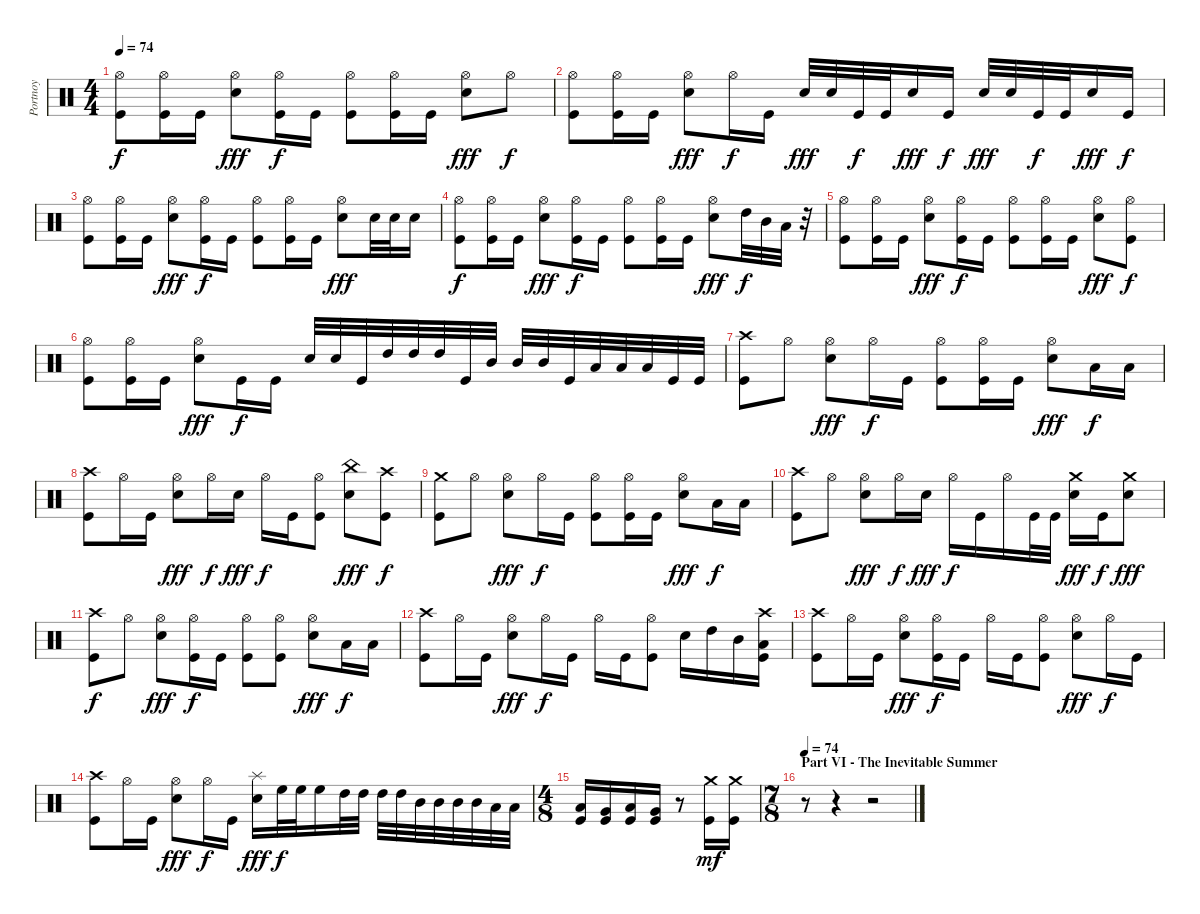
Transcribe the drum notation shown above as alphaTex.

\track ("Portnoy" "Portnoy") {instrument percussion}
\staff {score}
\articulation defaults
\ts (4 4)
\tempo 74
\clef neutral
\ks c
("Hi-Hat (open)" "Kick (hit)").8{dy f} ("Hi-Hat (open)" "Kick (hit)").16 "Kick (hit)".16 ("Hi-Hat (open)" "Electric Snare (hit)").8{dy fff} ("Hi-Hat (open)" "Kick (hit)").16{dy f} "Kick (hit)".16 ("Hi-Hat (open)" "Kick (hit)").8 ("Hi-Hat (open)" "Kick (hit)").16 "Kick (hit)".16 ("Hi-Hat (open)" "Electric Snare (hit)").8{dy fff} "Hi-Hat (open)".8{dy f} |
("Hi-Hat (open)" "Kick (hit)").8 ("Hi-Hat (open)" "Kick (hit)").16 "Kick (hit)".16 ("Hi-Hat (open)" "Electric Snare (hit)").8{dy fff} "Hi-Hat (open)".16{dy f} "Kick (hit)".16 "Electric Snare (hit)".32{dy fff} "Electric Snare (hit)".32 "Kick (hit)".32{dy f} "Kick (hit)".32 "Electric Snare (hit)".16{dy fff} "Kick (hit)".16{dy f} "Electric Snare (hit)".32{dy fff} "Electric Snare (hit)".32 "Kick (hit)".32{dy f} "Kick (hit)".32 "Electric Snare (hit)".16{dy fff} "Kick (hit)".16{dy f} |
("Hi-Hat (open)" "Kick (hit)").8 ("Hi-Hat (open)" "Kick (hit)").16 "Kick (hit)".16 ("Hi-Hat (open)" "Electric Snare (hit)").8{dy fff} ("Hi-Hat (open)" "Kick (hit)").16{dy f} "Kick (hit)".16 ("Hi-Hat (open)" "Kick (hit)").8 ("Hi-Hat (open)" "Kick (hit)").16 "Kick (hit)".16 ("Hi-Hat (open)" "Electric Snare (hit)").8{dy fff} "Electric Snare (hit)".32 "Electric Snare (hit)".32 "Electric Snare (hit)".16 |
("Hi-Hat (open)" "Kick (hit)").8{dy f} ("Hi-Hat (open)" "Kick (hit)").16 "Kick (hit)".16 ("Hi-Hat (open)" "Electric Snare (hit)").8{dy fff} ("Hi-Hat (open)" "Kick (hit)").16{dy f} "Kick (hit)".16 ("Hi-Hat (open)" "Kick (hit)").8 ("Hi-Hat (open)" "Kick (hit)").16 "Kick (hit)".16 ("Hi-Hat (open)" "Electric Snare (hit)").8{dy fff} "High Tom (hit)".32{dy f} "Mid Tom (hit)".32 "Low Tom (hit)".32 r.32 |
("Hi-Hat (open)" "Kick (hit)").8 ("Hi-Hat (open)" "Kick (hit)").16 "Kick (hit)".16 ("Hi-Hat (open)" "Electric Snare (hit)").8{dy fff} ("Hi-Hat (open)" "Kick (hit)").16{dy f} "Kick (hit)".16 ("Hi-Hat (open)" "Kick (hit)").8 ("Hi-Hat (open)" "Kick (hit)").16 "Kick (hit)".16 ("Hi-Hat (open)" "Electric Snare (hit)").8{dy fff} ("Hi-Hat (open)" "Kick (hit)").8{dy f} |
("Hi-Hat (open)" "Kick (hit)").8 ("Hi-Hat (open)" "Kick (hit)").16 "Kick (hit)".16 ("Hi-Hat (open)" "Electric Snare (hit)").8{dy fff} "Kick (hit)".16{dy f} "Kick (hit)".16 "Electric Snare (hit)".32 "Electric Snare (hit)".32 "Kick (hit)".32 "High Tom (hit)".32 "High Tom (hit)".32 "High Tom (hit)".32 "Kick (hit)".32 "Mid Tom (hit)".32 "Mid Tom (hit)".32 "Mid Tom (hit)".32 "Kick (hit)".32 "Low Tom (hit)".32 "Low Tom (hit)".32 "Low Tom (hit)".32 "Kick (hit)".32 "Kick (hit)".32 |
("Crash high (hit)" "Kick (hit)").8 "Hi-Hat (open)".8 ("Hi-Hat (open)" "Electric Snare (hit)").8{dy fff} "Hi-Hat (open)".16{dy f} "Kick (hit)".16 ("Hi-Hat (open)" "Kick (hit)").8 ("Hi-Hat (open)" "Kick (hit)").16 "Kick (hit)".16 ("Hi-Hat (open)" "Electric Snare (hit)").8{dy fff} "Low Floor Tom (hit)".16{dy f} "Low Floor Tom (hit)".16 |
("Crash high (hit)" "Kick (hit)").8 "Hi-Hat (open)".16 "Kick (hit)".16 ("Hi-Hat (open)" "Electric Snare (hit)").8{dy fff} "Hi-Hat (open)".16{dy f} "Electric Snare (hit)".16{dy fff} "Hi-Hat (open)".16{dy f} "Kick (hit)".16 ("Hi-Hat (open)" "Kick (hit)").8 ("China (hit)" "Electric Snare (hit)").8{dy fff} ("Crash high (hit)" "Kick (hit)").8{dy f} |
("Crash medium (hit)" "Kick (hit)").8 "Hi-Hat (open)".8 ("Hi-Hat (open)" "Electric Snare (hit)").8{dy fff} "Hi-Hat (open)".16{dy f} "Kick (hit)".16 ("Hi-Hat (open)" "Kick (hit)").8 ("Hi-Hat (open)" "Kick (hit)").16 "Kick (hit)".16 ("Hi-Hat (open)" "Electric Snare (hit)").8{dy fff} "Low Floor Tom (hit)".16{dy f} "Low Floor Tom (hit)".16 |
("Crash high (hit)" "Kick (hit)").8 "Hi-Hat (open)".8 ("Hi-Hat (open)" "Electric Snare (hit)").8{dy fff} "Hi-Hat (open)".16{dy f} "Electric Snare (hit)".16{dy fff} "Hi-Hat (open)".16{dy f} "Kick (hit)".16 "Hi-Hat (open)".16 "Kick (hit)".32 "Kick (hit)".32 ("Crash medium (hit)" "Electric Snare (hit)").16{dy fff} "Kick (hit)".16{dy f} ("Crash medium (hit)" "Electric Snare (hit)").8{dy fff} |
("Crash high (hit)" "Kick (hit)").8{dy f} "Hi-Hat (open)".8 ("Hi-Hat (open)" "Electric Snare (hit)").8{dy fff} ("Hi-Hat (open)" "Kick (hit)").16{dy f} "Kick (hit)".16 ("Hi-Hat (open)" "Kick (hit)").8 ("Hi-Hat (open)" "Kick (hit)").8 ("Hi-Hat (open)" "Electric Snare (hit)").8{dy fff} "Low Floor Tom (hit)".16{dy f} "Low Floor Tom (hit)".16 |
("Crash high (hit)" "Kick (hit)").8 "Hi-Hat (open)".16 "Kick (hit)".16 ("Hi-Hat (open)" "Electric Snare (hit)").8{dy fff} "Hi-Hat (open)".16{dy f} "Kick (hit)".16 "Hi-Hat (open)".16 "Kick (hit)".16 ("Hi-Hat (open)" "Kick (hit)").8 "Electric Snare (hit)".16 "High Tom (hit)".16 "Mid Tom (hit)".16 ("Crash high (hit)" "Low Tom (hit)" "Kick (hit)").16 |
("Crash high (hit)" "Kick (hit)").8 "Hi-Hat (open)".16 "Kick (hit)".16 ("Hi-Hat (open)" "Electric Snare (hit)").8{dy fff} ("Hi-Hat (open)" "Kick (hit)").16{dy f} "Kick (hit)".16 "Hi-Hat (open)".16 "Kick (hit)".16 ("Hi-Hat (open)" "Kick (hit)").8 ("Hi-Hat (open)" "Electric Snare (hit)").8{dy fff} "Hi-Hat (open)".16{dy f} "Kick (hit)".16 |
("Crash high (hit)" "Kick (hit)").8 "Hi-Hat (open)".16 "Kick (hit)".16 ("Hi-Hat (open)" "Electric Snare (hit)").8{dy fff} "Hi-Hat (open)".16{dy f} "Kick (hit)".16 ("Splash (hit)" "Electric Snare (hit)").16{dy fff} "High Floor Tom (hit)".32{dy f} "High Floor Tom (hit)".32 "High Floor Tom (hit)".16 "High Tom (hit)".32 "High Tom (hit)".32 "High Tom (hit)".32 "High Tom (hit)".32 "Mid Tom (hit)".32 "Mid Tom (hit)".32 "Mid Tom (hit)".32 "Mid Tom (hit)".32 "Low Tom (hit)".32 "Low Tom (hit)".32 |
\ts (4 8)
("Low Floor Tom (hit)" "Kick (hit)").16 ("Very Low Tom (hit)" "Kick (hit)").16 ("Low Floor Tom (hit)" "Kick (hit)").16 ("Very Low Tom (hit)" "Kick (hit)").16 r.8 ("Crash medium (hit)" "Kick (hit)").16{dy mf} ("Crash medium (hit)" "Kick (hit)").16 |
\ts (7 8)
\section ("" "Part VI - The Inevitable Summer")
\tempo 74
r.8 r.4 r.2
